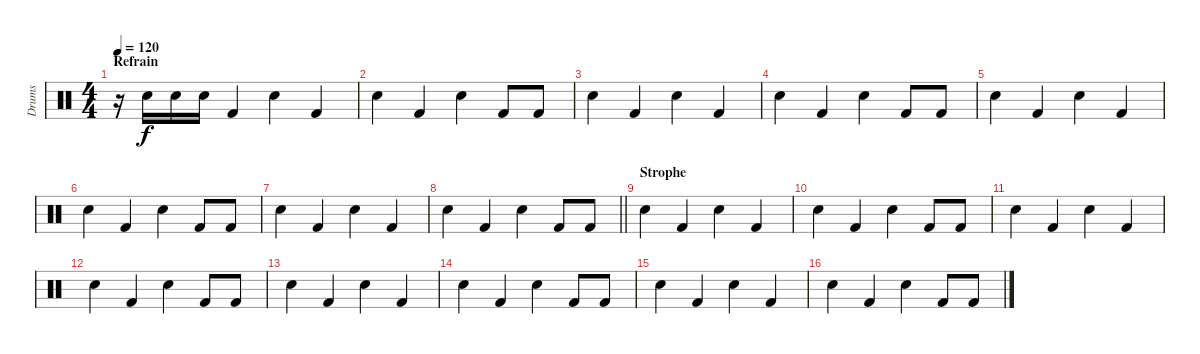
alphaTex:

\track ("Drums" "Drums") {instrument percussion}
\staff {score}
\articulation defaults
\ts (4 4)
\section ("" "Refrain")
\tempo 120
\clef neutral
\ks c
r.16{dy f} "Snare (hit) 2".16 "Snare (hit) 2".16 "Snare (hit) 2".16 "Kick (hit) 2".4 "Snare (hit) 2".4 "Kick (hit) 2".4 |
"Snare (hit) 2".4 "Kick (hit) 2".4 "Snare (hit) 2".4 "Kick (hit) 2".8 "Kick (hit) 2".8 |
"Snare (hit) 2".4 "Kick (hit) 2".4 "Snare (hit) 2".4 "Kick (hit) 2".4 |
"Snare (hit) 2".4 "Kick (hit) 2".4 "Snare (hit) 2".4 "Kick (hit) 2".8 "Kick (hit) 2".8 |
"Snare (hit) 2".4 "Kick (hit) 2".4 "Snare (hit) 2".4 "Kick (hit) 2".4 |
"Snare (hit) 2".4 "Kick (hit) 2".4 "Snare (hit) 2".4 "Kick (hit) 2".8 "Kick (hit) 2".8 |
"Snare (hit) 2".4 "Kick (hit) 2".4 "Snare (hit) 2".4 "Kick (hit) 2".4 |
\barLineRight lightlight "Snare (hit) 2".4 "Kick (hit) 2".4 "Snare (hit) 2".4 "Kick (hit) 2".8 "Kick (hit) 2".8
|
\section ("" "Strophe")
"Snare (hit) 2".4 "Kick (hit) 2".4 "Snare (hit) 2".4 "Kick (hit) 2".4 |
"Snare (hit) 2".4 "Kick (hit) 2".4 "Snare (hit) 2".4 "Kick (hit) 2".8 "Kick (hit) 2".8 |
"Snare (hit) 2".4 "Kick (hit) 2".4 "Snare (hit) 2".4 "Kick (hit) 2".4 |
"Snare (hit) 2".4 "Kick (hit) 2".4 "Snare (hit) 2".4 "Kick (hit) 2".8 "Kick (hit) 2".8 |
"Snare (hit) 2".4 "Kick (hit) 2".4 "Snare (hit) 2".4 "Kick (hit) 2".4 |
"Snare (hit) 2".4 "Kick (hit) 2".4 "Snare (hit) 2".4 "Kick (hit) 2".8 "Kick (hit) 2".8 |
"Snare (hit) 2".4 "Kick (hit) 2".4 "Snare (hit) 2".4 "Kick (hit) 2".4 |
"Snare (hit) 2".4 "Kick (hit) 2".4 "Snare (hit) 2".4 "Kick (hit) 2".8 "Kick (hit) 2".8
